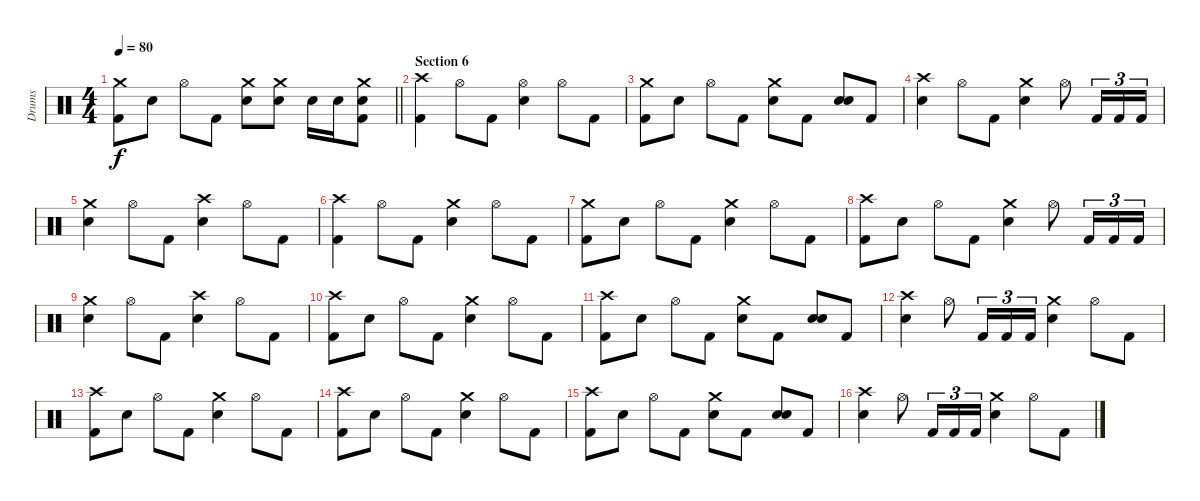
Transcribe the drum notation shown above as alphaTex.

\track ("Drums" "Drums") {instrument percussion}
\staff {score}
\articulation defaults
\ts (4 4)
\tempo 80
\clef neutral
\barLineRight lightlight
\ks c
("Crash medium (hit)" "Kick (hit) 2").8{dy f} "Electric Snare (hit)".8 "Hi-Hat (open)".8 "Kick (hit) 2".8 ("Crash medium (hit)" "Electric Snare (hit)").8 ("Crash medium (hit)" "Electric Snare (hit)").8 "Electric Snare (hit)".16 "Electric Snare (hit)".16 ("Crash medium (hit)" "Electric Snare (hit)" "Kick (hit) 2").8 |
\section ("" "Section 6")
("Crash high (hit)" "Kick (hit) 2").4 "Hi-Hat (open)".8 "Kick (hit) 2".8 ("Hi-Hat (open)" "Electric Snare (hit)").4 "Hi-Hat (open)".8 "Kick (hit) 2".8 |
("Crash medium (hit)" "Kick (hit) 2").8 "Electric Snare (hit)".8 "Hi-Hat (open)".8 "Kick (hit) 2".8 ("Crash medium (hit)" "Electric Snare (hit)").8 "Kick (hit) 2".8 ("Electric Snare (hit)" "Electric Snare (hit)").8{bu 60} "Kick (hit) 2".8 |
("Crash high (hit)" "Electric Snare (hit)").4 "Hi-Hat (open)".8 "Kick (hit) 2".8 ("Crash medium (hit)" "Electric Snare (hit)").4 "Hi-Hat (open)".8 "Kick (hit) 2".16{tu (3 2)} "Kick (hit) 2".16{tu (3 2)} "Kick (hit) 2".16{tu (3 2)} |
("Crash medium (hit)" "Electric Snare (hit)").4 "Hi-Hat (open)".8 "Kick (hit) 2".8 ("Crash high (hit)" "Electric Snare (hit)").4 "Hi-Hat (open)".8 "Kick (hit) 2".8 |
("Crash high (hit)" "Kick (hit) 2").4 "Hi-Hat (open)".8 "Kick (hit) 2".8 ("Crash medium (hit)" "Electric Snare (hit)").4 "Hi-Hat (open)".8 "Kick (hit) 2".8 |
("Crash medium (hit)" "Kick (hit) 2").8 "Electric Snare (hit)".8 "Hi-Hat (open)".8 "Kick (hit) 2".8 ("Crash medium (hit)" "Electric Snare (hit)").4 "Hi-Hat (open)".8 "Kick (hit) 2".8 |
("Crash high (hit)" "Kick (hit) 2").8 "Electric Snare (hit)".8 "Hi-Hat (open)".8 "Kick (hit) 2".8 ("Crash medium (hit)" "Electric Snare (hit)").4 "Hi-Hat (open)".8 "Kick (hit) 2".16{tu (3 2)} "Kick (hit) 2".16{tu (3 2)} "Kick (hit) 2".16{tu (3 2)} |
("Crash medium (hit)" "Electric Snare (hit)").4 "Hi-Hat (open)".8 "Kick (hit) 2".8 ("Crash high (hit)" "Electric Snare (hit)").4 "Hi-Hat (open)".8 "Kick (hit) 2".8 |
("Crash high (hit)" "Kick (hit) 2").8 "Electric Snare (hit)".8 "Hi-Hat (open)".8 "Kick (hit) 2".8 ("Crash medium (hit)" "Electric Snare (hit)").4 "Hi-Hat (open)".8 "Kick (hit) 2".8 |
("Crash high (hit)" "Kick (hit) 2").8 "Electric Snare (hit)".8 "Hi-Hat (open)".8 "Kick (hit) 2".8 ("Crash medium (hit)" "Electric Snare (hit)").8 "Kick (hit) 2".8 ("Electric Snare (hit)" "Electric Snare (hit)").8{bu 60} "Kick (hit) 2".8 |
("Crash high (hit)" "Electric Snare (hit)").4 "Hi-Hat (open)".8 "Kick (hit) 2".16{tu (3 2)} "Kick (hit) 2".16{tu (3 2)} "Kick (hit) 2".16{tu (3 2)} ("Crash medium (hit)" "Electric Snare (hit)").4 "Hi-Hat (open)".8 "Kick (hit) 2".8 |
("Crash high (hit)" "Kick (hit) 2").8 "Electric Snare (hit)".8 "Hi-Hat (open)".8 "Kick (hit) 2".8 ("Crash medium (hit)" "Electric Snare (hit)").4 "Hi-Hat (open)".8 "Kick (hit) 2".8 |
("Crash high (hit)" "Kick (hit) 2").8 "Electric Snare (hit)".8 "Hi-Hat (open)".8 "Kick (hit) 2".8 ("Crash medium (hit)" "Electric Snare (hit)").4 "Hi-Hat (open)".8 "Kick (hit) 2".8 |
("Crash high (hit)" "Kick (hit) 2").8 "Electric Snare (hit)".8 "Hi-Hat (open)".8 "Kick (hit) 2".8 ("Crash medium (hit)" "Electric Snare (hit)").8 "Kick (hit) 2".8 ("Electric Snare (hit)" "Electric Snare (hit)").8{bu 60} "Kick (hit) 2".8 |
("Crash high (hit)" "Electric Snare (hit)").4 "Hi-Hat (open)".8 "Kick (hit) 2".16{tu (3 2)} "Kick (hit) 2".16{tu (3 2)} "Kick (hit) 2".16{tu (3 2)} ("Crash medium (hit)" "Electric Snare (hit)").4 "Hi-Hat (open)".8 "Kick (hit) 2".8
